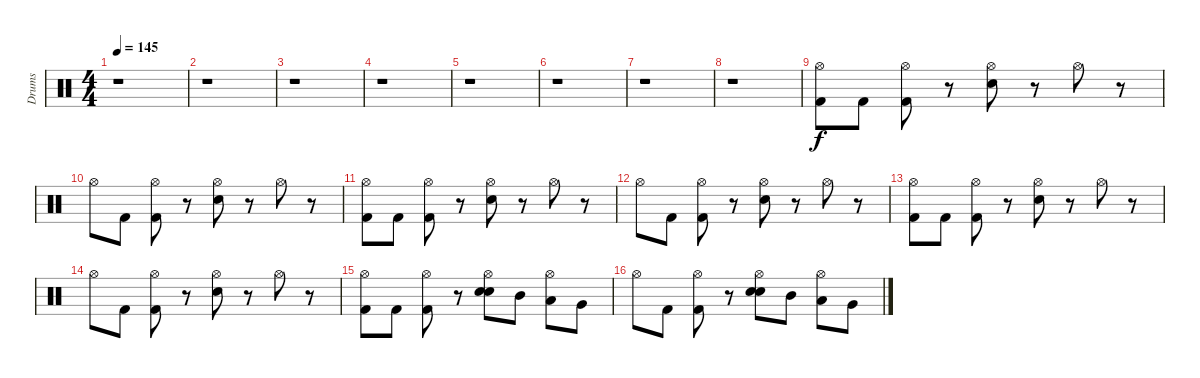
\track ("Drums" "Drums") {instrument percussion}
\staff {score}
\articulation defaults
\ts (4 4)
\tempo 145
\clef neutral
\ks c
r.1{dy f} |
r.1 |
r.1 |
r.1 |
r.1 |
r.1 |
r.1 |
r.1 |
("Hi-Hat (open)" "Kick (hit) 2").8 "Kick (hit) 2".8 ("Hi-Hat (open)" "Kick (hit) 2").8 r.8 ("Hi-Hat (open)" "Snare (hit) 2").8 r.8 "Hi-Hat (open)".8 r.8 |
"Hi-Hat (open)".8 "Kick (hit) 2".8 ("Hi-Hat (open)" "Kick (hit) 2").8 r.8 ("Hi-Hat (open)" "Snare (hit) 2").8 r.8 "Hi-Hat (open)".8 r.8 |
("Hi-Hat (open)" "Kick (hit) 2").8 "Kick (hit) 2".8 ("Hi-Hat (open)" "Kick (hit) 2").8 r.8 ("Hi-Hat (open)" "Snare (hit) 2").8 r.8 "Hi-Hat (open)".8 r.8 |
"Hi-Hat (open)".8 "Kick (hit) 2".8 ("Hi-Hat (open)" "Kick (hit) 2").8 r.8 ("Hi-Hat (open)" "Snare (hit) 2").8 r.8 "Hi-Hat (open)".8 r.8 |
("Hi-Hat (open)" "Kick (hit) 2").8 "Kick (hit) 2".8 ("Hi-Hat (open)" "Kick (hit) 2").8 r.8 ("Hi-Hat (open)" "Snare (hit) 2").8 r.8 "Hi-Hat (open)".8 r.8 |
"Hi-Hat (open)".8 "Kick (hit) 2".8 ("Hi-Hat (open)" "Kick (hit) 2").8 r.8 ("Hi-Hat (open)" "Snare (hit) 2").8 r.8 "Hi-Hat (open)".8 r.8 |
("Hi-Hat (open)" "Kick (hit) 2").8 "Kick (hit) 2".8 ("Hi-Hat (open)" "Kick (hit) 2").8 r.8 ("Hi-Hat (open)" "Electric Snare (hit)" "Snare (hit) 2").8 "Mid Tom (hit)".8 ("Hi-Hat (open)" "Low Tom (hit)").8 "Very Low Tom (hit)".8 |
"Hi-Hat (open)".8 "Kick (hit) 2".8 ("Hi-Hat (open)" "Kick (hit) 2").8 r.8 ("Hi-Hat (open)" "Electric Snare (hit)" "Snare (hit) 2").8 "Mid Tom (hit)".8 ("Hi-Hat (open)" "Low Tom (hit)").8 "Very Low Tom (hit)".8
